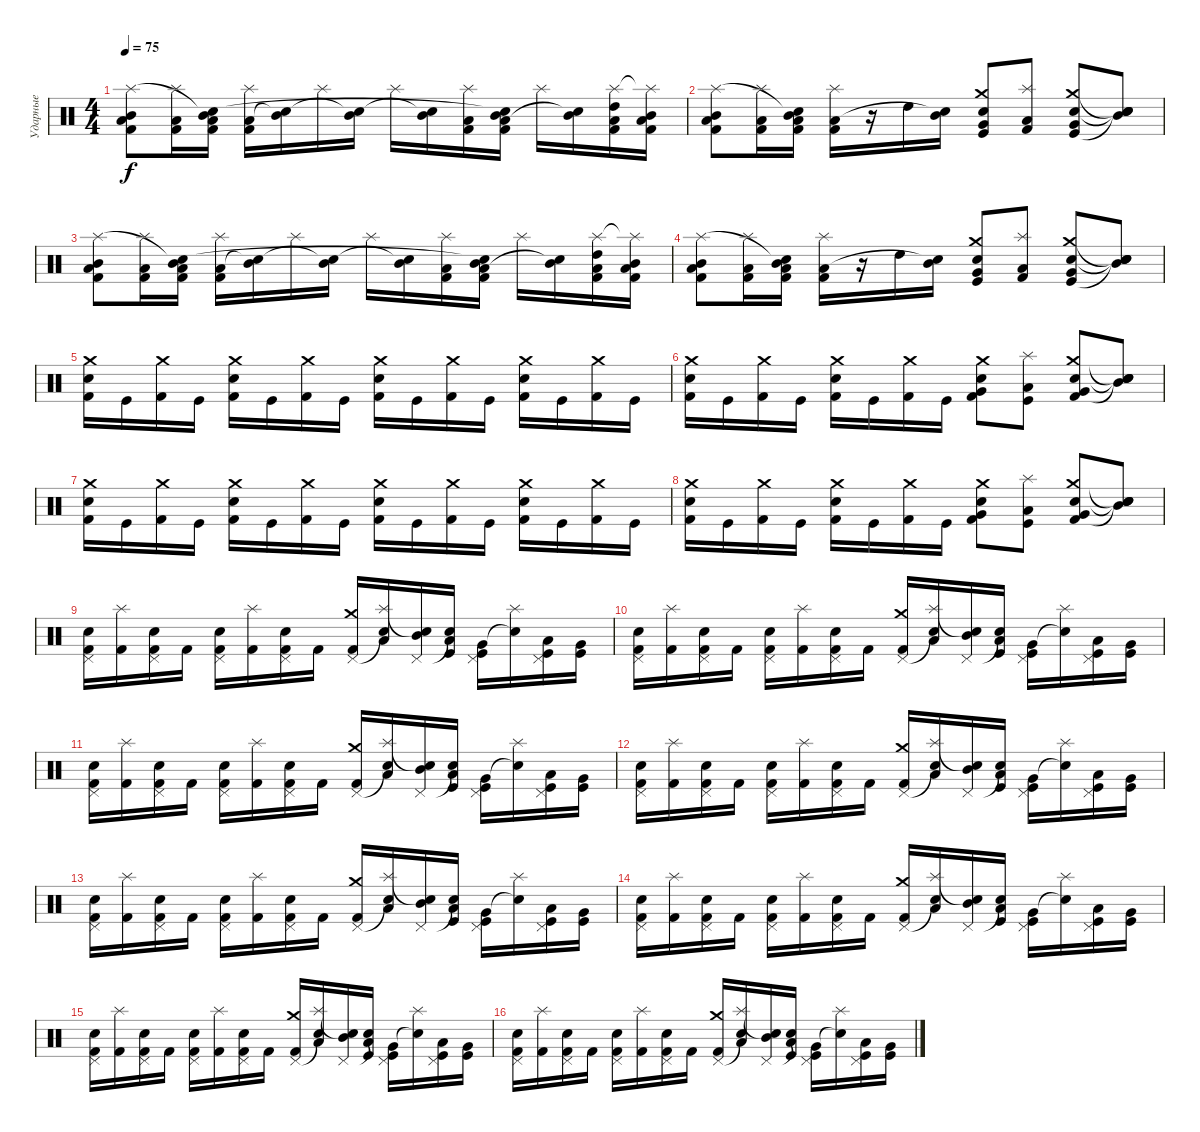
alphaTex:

\track ("Ударные" "Ударные") {instrument percussion}
\staff {score}
\articulation defaults
\ts (4 4)
\tempo 75
\clef neutral
\ks c
("Kick (hit) 2" "Low Tom (hit)" "Mid Tom (hit)" "Splash (hit)").8{dy f} ("Kick (hit) 2" "Low Tom (hit)" "Splash (hit)").16 ("Kick (hit) 2" "Low Tom (hit)" "Mid Tom (hit)" "Snare (hit)"{t}).16 ("Kick (hit) 2" "Low Tom (hit)" "Splash (hit)").16 ("Mid Tom (hit)" "Snare (hit)"{t}).16 "Splash (hit)".16 ("Mid Tom (hit)" "Snare (hit)"{t}).16 "Splash (hit)".16 ("Mid Tom (hit)" "Snare (hit)"{t}).16 ("Kick (hit) 2" "Low Tom (hit)" "Splash (hit)").16 ("Kick (hit) 2" "Low Tom (hit)" "Mid Tom (hit)" "Snare (hit)"{t}).16 "Splash (hit)".16 ("Mid Tom (hit)" "Snare (hit)"{t}).16 ("Kick (hit) 2" "Low Tom (hit)" "High Tom (hit)" "Splash (hit)").16 ("Kick (hit) 2" "Low Tom (hit)" "Mid Tom (hit)" "Splash (hit)"{t}).16 |
("Kick (hit) 2" "Low Tom (hit)" "Mid Tom (hit)" "Splash (hit)").8 ("Kick (hit) 2" "Low Tom (hit)" "Splash (hit)").16 ("Kick (hit) 2" "Low Tom (hit)" "Mid Tom (hit)" "Snare (hit)"{t}).16 ("Kick (hit) 2" "Low Tom (hit)" "Splash (hit)").16 r.16 "High Tom (hit)".16 ("Mid Tom (hit)" "Snare (hit)"{t}).16 ("Kick (hit)" "Very Low Tom (hit)" "Crash medium (hit)" "Electric Snare (hit)").8 ("Kick (hit) 2" "Low Floor Tom (hit)" "Splash (hit)").8 ("Kick (hit)" "Very Low Tom (hit)" "Crash medium (hit)" "Electric Snare (hit)").8 ("Snare (hit)"{t} "Mid Tom (hit)" "Snare (hit)"{t} "Snare (hit)"{t}).8 |
("Kick (hit) 2" "Low Tom (hit)" "Mid Tom (hit)" "Splash (hit)").8 ("Kick (hit) 2" "Low Tom (hit)" "Splash (hit)").16 ("Kick (hit) 2" "Low Tom (hit)" "Mid Tom (hit)" "Snare (hit)"{t}).16 ("Kick (hit) 2" "Low Tom (hit)" "Splash (hit)").16 ("Mid Tom (hit)" "Snare (hit)"{t}).16 "Splash (hit)".16 ("Mid Tom (hit)" "Snare (hit)"{t}).16 "Splash (hit)".16 ("Mid Tom (hit)" "Snare (hit)"{t}).16 ("Kick (hit) 2" "Low Tom (hit)" "Splash (hit)").16 ("Kick (hit) 2" "Low Tom (hit)" "Mid Tom (hit)" "Snare (hit)"{t}).16 "Splash (hit)".16 ("Mid Tom (hit)" "Snare (hit)"{t}).16 ("Kick (hit) 2" "Low Tom (hit)" "High Tom (hit)" "Splash (hit)").16 ("Kick (hit) 2" "Low Tom (hit)" "Mid Tom (hit)" "Splash (hit)"{t}).16 |
("Kick (hit) 2" "Low Tom (hit)" "Mid Tom (hit)" "Splash (hit)").8 ("Kick (hit) 2" "Low Tom (hit)" "Splash (hit)").16 ("Kick (hit) 2" "Low Tom (hit)" "Mid Tom (hit)" "Snare (hit)"{t}).16 ("Kick (hit) 2" "Low Tom (hit)" "Splash (hit)").16 r.16 "High Tom (hit)".16 ("Mid Tom (hit)" "Snare (hit)"{t}).16 ("Kick (hit)" "Very Low Tom (hit)" "Crash medium (hit)" "Electric Snare (hit)").8 ("Kick (hit) 2" "Low Floor Tom (hit)" "Splash (hit)").8 ("Kick (hit)" "Very Low Tom (hit)" "Crash medium (hit)" "Electric Snare (hit)").8 ("Snare (hit)"{t} "Mid Tom (hit)" "Snare (hit)"{t} "Snare (hit)"{t}).8 |
("Kick (hit) 2" "Snare (hit) 2" "Crash medium (hit)").16 "Kick (hit)".16 ("Kick (hit) 2" "Crash medium (hit)").16 "Kick (hit)".16 ("Kick (hit) 2" "Snare (hit) 2" "Crash medium (hit)").16 "Kick (hit)".16 ("Kick (hit) 2" "Crash medium (hit)").16 "Kick (hit)".16 ("Kick (hit) 2" "Snare (hit) 2" "Crash medium (hit)").16 "Kick (hit)".16 ("Kick (hit) 2" "Crash medium (hit)").16 "Kick (hit)".16 ("Kick (hit) 2" "Snare (hit) 2" "Crash medium (hit)").16 "Kick (hit)".16 ("Kick (hit) 2" "Crash medium (hit)").16 "Kick (hit)".16 |
("Kick (hit) 2" "Snare (hit) 2" "Crash medium (hit)").16 "Kick (hit)".16 ("Kick (hit) 2" "Crash medium (hit)").16 "Kick (hit)".16 ("Kick (hit) 2" "Snare (hit) 2" "Crash medium (hit)").16 "Kick (hit)".16 ("Kick (hit) 2" "Crash medium (hit)").16 "Kick (hit)".16 ("Kick (hit) 2" "Very Low Tom (hit)" "Crash medium (hit)" "Electric Snare (hit)").8 ("Kick (hit)" "Low Floor Tom (hit)" "Splash (hit)").8 ("Kick (hit) 2" "Very Low Tom (hit)" "Crash medium (hit)" "Electric Snare (hit)").8 ("Snare (hit)"{t} "Mid Tom (hit)" "Snare (hit)"{t} "Snare (hit)"{t}).8 |
("Kick (hit) 2" "Snare (hit) 2" "Crash medium (hit)").16 "Kick (hit)".16 ("Kick (hit) 2" "Crash medium (hit)").16 "Kick (hit)".16 ("Kick (hit) 2" "Snare (hit) 2" "Crash medium (hit)").16 "Kick (hit)".16 ("Kick (hit) 2" "Crash medium (hit)").16 "Kick (hit)".16 ("Kick (hit) 2" "Snare (hit) 2" "Crash medium (hit)").16 "Kick (hit)".16 ("Kick (hit) 2" "Crash medium (hit)").16 "Kick (hit)".16 ("Kick (hit) 2" "Snare (hit) 2" "Crash medium (hit)").16 "Kick (hit)".16 ("Kick (hit) 2" "Crash medium (hit)").16 "Kick (hit)".16 |
("Kick (hit) 2" "Snare (hit) 2" "Crash medium (hit)").16 "Kick (hit)".16 ("Kick (hit) 2" "Crash medium (hit)").16 "Kick (hit)".16 ("Kick (hit) 2" "Snare (hit) 2" "Crash medium (hit)").16 "Kick (hit)".16 ("Kick (hit) 2" "Crash medium (hit)").16 "Kick (hit)".16 ("Kick (hit) 2" "Very Low Tom (hit)" "Crash medium (hit)" "Electric Snare (hit)").8 ("Kick (hit)" "Low Floor Tom (hit)" "Splash (hit)").8 ("Kick (hit) 2" "Very Low Tom (hit)" "Crash medium (hit)" "Electric Snare (hit)").8 ("Snare (hit)"{t} "Mid Tom (hit)" "Snare (hit)"{t} "Snare (hit)"{t}).8 |
("Kick (hit) 2" "Electric Snare (hit)" "Pedal Hi-Hat (hit)").16 ("Kick (hit) 2" "Splash (hit)").16 ("Kick (hit) 2" "Electric Snare (hit)" "Pedal Hi-Hat (hit)").16 "Kick (hit) 2".16 ("Kick (hit) 2" "Electric Snare (hit)" "Pedal Hi-Hat (hit)").16 ("Kick (hit) 2" "Splash (hit)").16 ("Kick (hit) 2" "Electric Snare (hit)" "Pedal Hi-Hat (hit)").16 "Kick (hit) 2".16 ("Kick (hit) 2" "Crash medium (hit)" "Pedal Hi-Hat (hit)").16 ("Low Tom (hit)" "Splash (hit)" "Snare (hit)"{t}).16 ("Mid Tom (hit)" "Snare (hit)"{t} "Pedal Hi-Hat (hit)").16 ("Kick (hit)" "Low Floor Tom (hit)" "Snare (hit)"{t}).16 ("Kick (hit)" "Very Low Tom (hit)" "Pedal Hi-Hat (hit)").16 ("Splash (hit)" "Snare (hit)"{t}).16 ("Kick (hit)" "Low Floor Tom (hit)" "Pedal Hi-Hat (hit)").16 ("Kick (hit)" "Very Low Tom (hit)").16 |
("Kick (hit) 2" "Electric Snare (hit)" "Pedal Hi-Hat (hit)").16 ("Kick (hit) 2" "Splash (hit)").16 ("Kick (hit) 2" "Electric Snare (hit)" "Pedal Hi-Hat (hit)").16 "Kick (hit) 2".16 ("Kick (hit) 2" "Electric Snare (hit)" "Pedal Hi-Hat (hit)").16 ("Kick (hit) 2" "Splash (hit)").16 ("Kick (hit) 2" "Electric Snare (hit)" "Pedal Hi-Hat (hit)").16 "Kick (hit) 2".16 ("Kick (hit) 2" "Crash medium (hit)" "Pedal Hi-Hat (hit)").16 ("Low Tom (hit)" "Splash (hit)" "Snare (hit)"{t}).16 ("Mid Tom (hit)" "Snare (hit)"{t} "Pedal Hi-Hat (hit)").16 ("Kick (hit)" "Low Floor Tom (hit)" "Snare (hit)"{t}).16 ("Kick (hit)" "Very Low Tom (hit)" "Pedal Hi-Hat (hit)").16 ("Splash (hit)" "Snare (hit)"{t}).16 ("Kick (hit)" "Low Floor Tom (hit)" "Pedal Hi-Hat (hit)").16 ("Kick (hit)" "Very Low Tom (hit)").16 |
("Kick (hit) 2" "Electric Snare (hit)" "Pedal Hi-Hat (hit)").16 ("Kick (hit) 2" "Splash (hit)").16 ("Kick (hit) 2" "Electric Snare (hit)" "Pedal Hi-Hat (hit)").16 "Kick (hit) 2".16 ("Kick (hit) 2" "Electric Snare (hit)" "Pedal Hi-Hat (hit)").16 ("Kick (hit) 2" "Splash (hit)").16 ("Kick (hit) 2" "Electric Snare (hit)" "Pedal Hi-Hat (hit)").16 "Kick (hit) 2".16 ("Kick (hit) 2" "Crash medium (hit)" "Pedal Hi-Hat (hit)").16 ("Low Tom (hit)" "Splash (hit)" "Snare (hit)"{t}).16 ("Mid Tom (hit)" "Snare (hit)"{t} "Pedal Hi-Hat (hit)").16 ("Kick (hit)" "Low Floor Tom (hit)" "Snare (hit)"{t}).16 ("Kick (hit)" "Very Low Tom (hit)" "Pedal Hi-Hat (hit)").16 ("Splash (hit)" "Snare (hit)"{t}).16 ("Kick (hit)" "Low Floor Tom (hit)" "Pedal Hi-Hat (hit)").16 ("Kick (hit)" "Very Low Tom (hit)").16 |
("Kick (hit) 2" "Electric Snare (hit)" "Pedal Hi-Hat (hit)").16 ("Kick (hit) 2" "Splash (hit)").16 ("Kick (hit) 2" "Electric Snare (hit)" "Pedal Hi-Hat (hit)").16 "Kick (hit) 2".16 ("Kick (hit) 2" "Electric Snare (hit)" "Pedal Hi-Hat (hit)").16 ("Kick (hit) 2" "Splash (hit)").16 ("Kick (hit) 2" "Electric Snare (hit)" "Pedal Hi-Hat (hit)").16 "Kick (hit) 2".16 ("Kick (hit) 2" "Crash medium (hit)" "Pedal Hi-Hat (hit)").16 ("Low Tom (hit)" "Splash (hit)" "Snare (hit)"{t}).16 ("Mid Tom (hit)" "Snare (hit)"{t} "Pedal Hi-Hat (hit)").16 ("Kick (hit)" "Low Floor Tom (hit)" "Snare (hit)"{t}).16 ("Kick (hit)" "Very Low Tom (hit)" "Pedal Hi-Hat (hit)").16 ("Splash (hit)" "Snare (hit)"{t}).16 ("Kick (hit)" "Low Floor Tom (hit)" "Pedal Hi-Hat (hit)").16 ("Kick (hit)" "Very Low Tom (hit)").16 |
("Kick (hit) 2" "Electric Snare (hit)" "Pedal Hi-Hat (hit)").16 ("Kick (hit) 2" "Splash (hit)").16 ("Kick (hit) 2" "Electric Snare (hit)" "Pedal Hi-Hat (hit)").16 "Kick (hit) 2".16 ("Kick (hit) 2" "Electric Snare (hit)" "Pedal Hi-Hat (hit)").16 ("Kick (hit) 2" "Splash (hit)").16 ("Kick (hit) 2" "Electric Snare (hit)" "Pedal Hi-Hat (hit)").16 "Kick (hit) 2".16 ("Kick (hit) 2" "Crash medium (hit)" "Pedal Hi-Hat (hit)").16 ("Low Tom (hit)" "Splash (hit)" "Snare (hit)"{t}).16 ("Mid Tom (hit)" "Snare (hit)"{t} "Pedal Hi-Hat (hit)").16 ("Kick (hit)" "Low Floor Tom (hit)" "Snare (hit)"{t}).16 ("Kick (hit)" "Very Low Tom (hit)" "Pedal Hi-Hat (hit)").16 ("Splash (hit)" "Snare (hit)"{t}).16 ("Kick (hit)" "Low Floor Tom (hit)" "Pedal Hi-Hat (hit)").16 ("Kick (hit)" "Very Low Tom (hit)").16 |
("Kick (hit) 2" "Electric Snare (hit)" "Pedal Hi-Hat (hit)").16 ("Kick (hit) 2" "Splash (hit)").16 ("Kick (hit) 2" "Electric Snare (hit)" "Pedal Hi-Hat (hit)").16 "Kick (hit) 2".16 ("Kick (hit) 2" "Electric Snare (hit)" "Pedal Hi-Hat (hit)").16 ("Kick (hit) 2" "Splash (hit)").16 ("Kick (hit) 2" "Electric Snare (hit)" "Pedal Hi-Hat (hit)").16 "Kick (hit) 2".16 ("Kick (hit) 2" "Crash medium (hit)" "Pedal Hi-Hat (hit)").16 ("Low Tom (hit)" "Splash (hit)" "Snare (hit)"{t}).16 ("Mid Tom (hit)" "Snare (hit)"{t} "Pedal Hi-Hat (hit)").16 ("Kick (hit)" "Low Floor Tom (hit)" "Snare (hit)"{t}).16 ("Kick (hit)" "Very Low Tom (hit)" "Pedal Hi-Hat (hit)").16 ("Splash (hit)" "Snare (hit)"{t}).16 ("Kick (hit)" "Low Floor Tom (hit)" "Pedal Hi-Hat (hit)").16 ("Kick (hit)" "Very Low Tom (hit)").16 |
("Kick (hit) 2" "Electric Snare (hit)" "Pedal Hi-Hat (hit)").16 ("Kick (hit) 2" "Splash (hit)").16 ("Kick (hit) 2" "Electric Snare (hit)" "Pedal Hi-Hat (hit)").16 "Kick (hit) 2".16 ("Kick (hit) 2" "Electric Snare (hit)" "Pedal Hi-Hat (hit)").16 ("Kick (hit) 2" "Splash (hit)").16 ("Kick (hit) 2" "Electric Snare (hit)" "Pedal Hi-Hat (hit)").16 "Kick (hit) 2".16 ("Kick (hit) 2" "Crash medium (hit)" "Pedal Hi-Hat (hit)").16 ("Low Tom (hit)" "Splash (hit)" "Snare (hit)"{t}).16 ("Mid Tom (hit)" "Snare (hit)"{t} "Pedal Hi-Hat (hit)").16 ("Kick (hit)" "Low Floor Tom (hit)" "Snare (hit)"{t}).16 ("Kick (hit)" "Very Low Tom (hit)" "Pedal Hi-Hat (hit)").16 ("Splash (hit)" "Snare (hit)"{t}).16 ("Kick (hit)" "Low Floor Tom (hit)" "Pedal Hi-Hat (hit)").16 ("Kick (hit)" "Very Low Tom (hit)").16 |
("Kick (hit) 2" "Electric Snare (hit)" "Pedal Hi-Hat (hit)").16 ("Kick (hit) 2" "Splash (hit)").16 ("Kick (hit) 2" "Electric Snare (hit)" "Pedal Hi-Hat (hit)").16 "Kick (hit) 2".16 ("Kick (hit) 2" "Electric Snare (hit)" "Pedal Hi-Hat (hit)").16 ("Kick (hit) 2" "Splash (hit)").16 ("Kick (hit) 2" "Electric Snare (hit)" "Pedal Hi-Hat (hit)").16 "Kick (hit) 2".16 ("Kick (hit) 2" "Crash medium (hit)" "Pedal Hi-Hat (hit)").16 ("Low Tom (hit)" "Splash (hit)" "Snare (hit)"{t}).16 ("Mid Tom (hit)" "Snare (hit)"{t} "Pedal Hi-Hat (hit)").16 ("Kick (hit)" "Low Floor Tom (hit)" "Snare (hit)"{t}).16 ("Kick (hit)" "Very Low Tom (hit)" "Pedal Hi-Hat (hit)").16 ("Splash (hit)" "Snare (hit)"{t}).16 ("Kick (hit)" "Low Floor Tom (hit)" "Pedal Hi-Hat (hit)").16 ("Kick (hit)" "Very Low Tom (hit)").16
